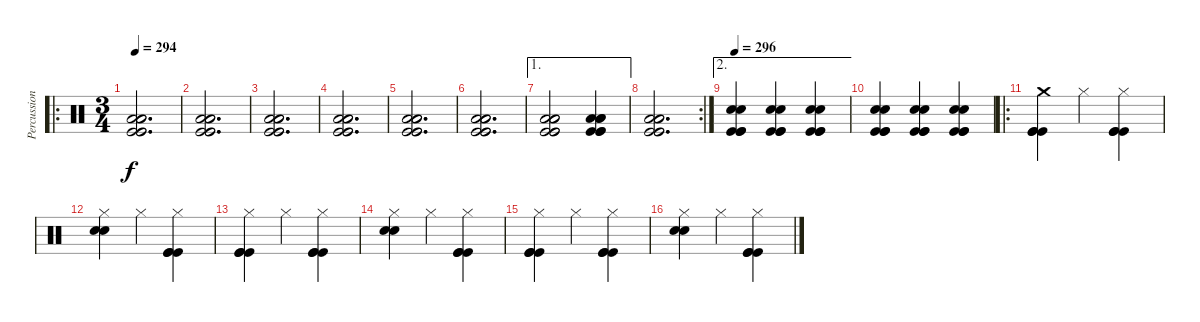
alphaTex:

\track ("Percussion" "Percussion") {instrument percussion}
\staff {score}
\articulation defaults
\ro
\ts (3 4)
\tempo 294
\clef neutral
\ks c
("Low Floor Tom (hit)" "Low Floor Tom (hit)" "Low Floor Tom (hit)" "Kick (hit)" "Kick (hit)" "Kick (hit)").2{d dy f} |
("Low Floor Tom (hit)" "Low Floor Tom (hit)" "Low Floor Tom (hit)" "Kick (hit)" "Kick (hit)" "Kick (hit)").2{d} |
("Low Floor Tom (hit)" "Low Floor Tom (hit)" "Low Floor Tom (hit)" "Kick (hit)" "Kick (hit)" "Kick (hit)").2{d} |
("Low Floor Tom (hit)" "Low Floor Tom (hit)" "Low Floor Tom (hit)" "Kick (hit)" "Kick (hit)" "Kick (hit)").2{d} |
("Low Floor Tom (hit)" "Low Floor Tom (hit)" "Low Floor Tom (hit)" "Kick (hit)" "Kick (hit)" "Kick (hit)").2{d} |
("Low Floor Tom (hit)" "Low Floor Tom (hit)" "Low Floor Tom (hit)" "Kick (hit)" "Kick (hit)" "Kick (hit)").2{d} |
\ae 1
("Low Floor Tom (hit)" "Low Floor Tom (hit)" "Low Floor Tom (hit)" "Kick (hit)" "Kick (hit)" "Kick (hit)").2 ("Low Floor Tom (hit)" "Low Floor Tom (hit)" "Low Floor Tom (hit)" "Kick (hit)" "Kick (hit)" "Kick (hit)").4 |
\rc 2
("Low Floor Tom (hit)" "Low Floor Tom (hit)" "Low Floor Tom (hit)" "Kick (hit)" "Kick (hit)" "Kick (hit)").2{d} |
\ae 2
\tempo 296
("Electric Snare (hit)" "Snare (hit) 2" "Kick (hit)" "Kick (hit)" "Kick (hit)").4 ("Electric Snare (hit)" "Snare (hit) 2" "Kick (hit)" "Kick (hit)" "Kick (hit)").4 ("Electric Snare (hit)" "Snare (hit) 2" "Kick (hit)" "Kick (hit)" "Kick (hit)").4 |
("Electric Snare (hit)" "Snare (hit) 2" "Kick (hit)" "Kick (hit)" "Kick (hit)").4 ("Electric Snare (hit)" "Snare (hit) 2" "Kick (hit)" "Kick (hit)" "Kick (hit)").4 ("Electric Snare (hit)" "Snare (hit) 2" "Kick (hit)" "Kick (hit)" "Kick (hit)").4 |
\ro
("Crash medium (hit)" "Kick (hit)" "Kick (hit)" "Kick (hit)").4 "Hi-Hat (closed)".4 ("Hi-Hat (closed)" "Kick (hit)" "Kick (hit)" "Kick (hit)").4 |
("Hi-Hat (closed)" "Electric Snare (hit)" "Snare (hit) 2").4 "Hi-Hat (closed)".4 ("Hi-Hat (closed)" "Kick (hit)" "Kick (hit)" "Kick (hit)").4 |
("Hi-Hat (closed)" "Kick (hit)" "Kick (hit)" "Kick (hit)").4 "Hi-Hat (closed)".4 ("Hi-Hat (closed)" "Kick (hit)" "Kick (hit)" "Kick (hit)").4 |
("Hi-Hat (closed)" "Electric Snare (hit)" "Snare (hit) 2").4 "Hi-Hat (closed)".4 ("Hi-Hat (closed)" "Kick (hit)" "Kick (hit)" "Kick (hit)").4 |
("Hi-Hat (closed)" "Kick (hit)" "Kick (hit)" "Kick (hit)").4 "Hi-Hat (closed)".4 ("Hi-Hat (closed)" "Kick (hit)" "Kick (hit)" "Kick (hit)").4 |
("Hi-Hat (closed)" "Electric Snare (hit)" "Snare (hit) 2").4 "Hi-Hat (closed)".4 ("Hi-Hat (closed)" "Kick (hit)" "Kick (hit)" "Kick (hit)").4
